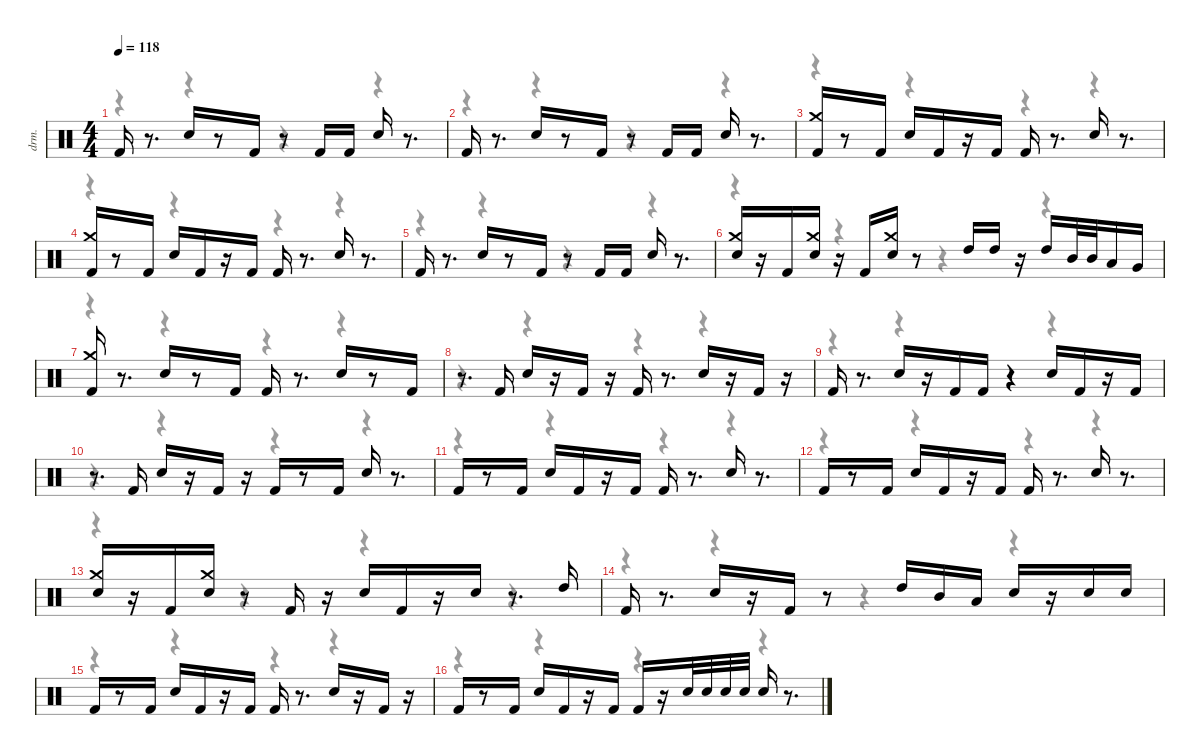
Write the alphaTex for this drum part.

\defaultSystemsLayout 4
\hideDynamics
\bracketExtendMode nobrackets
\track ("Drums" "drm.") {instrument percussion}
\staff {score}
\articulation defaults
\voice
\ts (4 4)
\tempo 118
\clef neutral
\ks c "Kick (hit) 2".16{dy f}
r.8{d} "Snare (hit) 2".16 r.8 "Kick (hit) 2".16 r.8 "Kick (hit) 2".16 "Kick (hit) 2".16 "Snare (hit) 2".16 r.8{d} |
"Kick (hit) 2".16 r.8{d} "Snare (hit) 2".16 r.8 "Kick (hit) 2".16 r.8 "Kick (hit) 2".16 "Kick (hit) 2".16 "Snare (hit) 2".16 r.8{d} |
("Kick (hit) 2" "Crash medium (hit)").16 r.8 "Kick (hit) 2".16 "Snare (hit) 2".16 "Kick (hit) 2".16 r.16 "Kick (hit) 2".16 "Kick (hit) 2".16 r.8{d} "Snare (hit) 2".16 r.8{d} |
("Kick (hit) 2" "Crash medium (hit)").16 r.8 "Kick (hit) 2".16 "Snare (hit) 2".16 "Kick (hit) 2".16 r.16 "Kick (hit) 2".16 "Kick (hit) 2".16 r.8{d} "Snare (hit) 2".16 r.8{d} |
"Kick (hit) 2".16 r.8{d} "Snare (hit) 2".16 r.8 "Kick (hit) 2".16 r.8 "Kick (hit) 2".16 "Kick (hit) 2".16 "Snare (hit) 2".16 r.8{d} |
("Snare (hit) 2" "Crash medium (hit)").16 r.16 "Kick (hit) 2".16 ("Snare (hit) 2" "Crash medium (hit)").16 r.16 "Kick (hit) 2".16 ("Snare (hit) 2" "Crash medium (hit)").16 r.8 "High Tom (hit)".16 "High Tom (hit)".16 r.16 "High Tom (hit)".16 "Mid Tom (hit)".32 "Mid Tom (hit)".32 "Low Tom (hit)".16 "Very Low Tom (hit)".16 |
("Crash medium (hit)" "Kick (hit) 2").16 r.8{d} "Snare (hit) 2".16 r.8 "Kick (hit) 2".16 "Kick (hit) 2".16 r.8{d} "Snare (hit) 2".16 r.8 "Kick (hit) 2".16 |
r.8{d} "Kick (hit) 2".16 "Snare (hit) 2".16 r.16 "Kick (hit) 2".16 r.16 "Kick (hit) 2".16 r.8{d} "Snare (hit) 2".16 r.16 "Kick (hit) 2".16 r.16 |
"Kick (hit) 2".16 r.8{d} "Snare (hit) 2".16 r.16 "Kick (hit) 2".16 "Kick (hit) 2".16 r.4 "Snare (hit) 2".16 "Kick (hit) 2".16 r.16 "Kick (hit) 2".16 |
r.8{d} "Kick (hit) 2".16 "Snare (hit) 2".16 r.16 "Kick (hit) 2".16 r.16 "Kick (hit) 2".16 r.8 "Kick (hit) 2".16 "Snare (hit) 2".16 r.8{d} |
"Kick (hit) 2".16 r.8 "Kick (hit) 2".16 "Snare (hit) 2".16 "Kick (hit) 2".16 r.16 "Kick (hit) 2".16 "Kick (hit) 2".16 r.8{d} "Snare (hit) 2".16 r.8{d} |
"Kick (hit) 2".16 r.8 "Kick (hit) 2".16 "Snare (hit) 2".16 "Kick (hit) 2".16 r.16 "Kick (hit) 2".16 "Kick (hit) 2".16 r.8{d} "Snare (hit) 2".16 r.8{d} |
("Crash medium (hit)" "Snare (hit) 2").16 r.16 "Kick (hit) 2".16 ("Crash medium (hit)" "Snare (hit) 2").16 r.8 "Kick (hit) 2".16 r.16 "Snare (hit) 2".16 "Kick (hit) 2".16 r.16 "Snare (hit) 2".16 r.8{d} "High Tom (hit)".16 |
"Kick (hit) 2".16 r.8{d} "Snare (hit) 2".16 r.16 "Kick (hit) 2".16 r.8 "High Tom (hit)".16 "Mid Tom (hit)".16 "Low Tom (hit)".16 "Snare (hit) 2".16 r.16 "Snare (hit) 2".16 "Snare (hit) 2".16 |
"Kick (hit) 2".16 r.8 "Kick (hit) 2".16 "Snare (hit) 2".16 "Kick (hit) 2".16 r.16 "Kick (hit) 2".16 "Kick (hit) 2".16 r.8{d} "Snare (hit) 2".16 r.16 "Kick (hit) 2".16 r.16 |
"Kick (hit) 2".16 r.8 "Kick (hit) 2".16 "Snare (hit) 2".16 "Kick (hit) 2".16 r.16 "Kick (hit) 2".16 "Kick (hit) 2".16 r.16 "Snare (hit) 2".32 "Snare (hit) 2".32 "Snare (hit) 2".32 "Snare (hit) 2".32 "Snare (hit) 2".16 r.8{d}
\voice
\clef neutral
\ottava regular
\simile none
\ks c
r.4{dy mf} r.4 r.4 r.4 |
r.4 r.4 r.4 r.4 |
r.4 r.4 r.4 r.4 |
r.4 r.4 r.4 r.4 |
r.4 r.4 r.4 r.4 |
r.4 r.4 r.4 r.4 |
r.4 r.4 r.4 r.4 |
r.4 r.4 r.4 r.4 |
r.4 r.4 r.4 r.4 |
r.4 r.4 r.4 r.4 |
r.4 r.4 r.4 r.4 |
r.4 r.4 r.4 r.4 |
r.4 r.4 r.4 r.4 |
r.4 r.4 r.4 r.4 |
r.4 r.4 r.4 r.4 |
r.4 r.4 r.4 r.4
